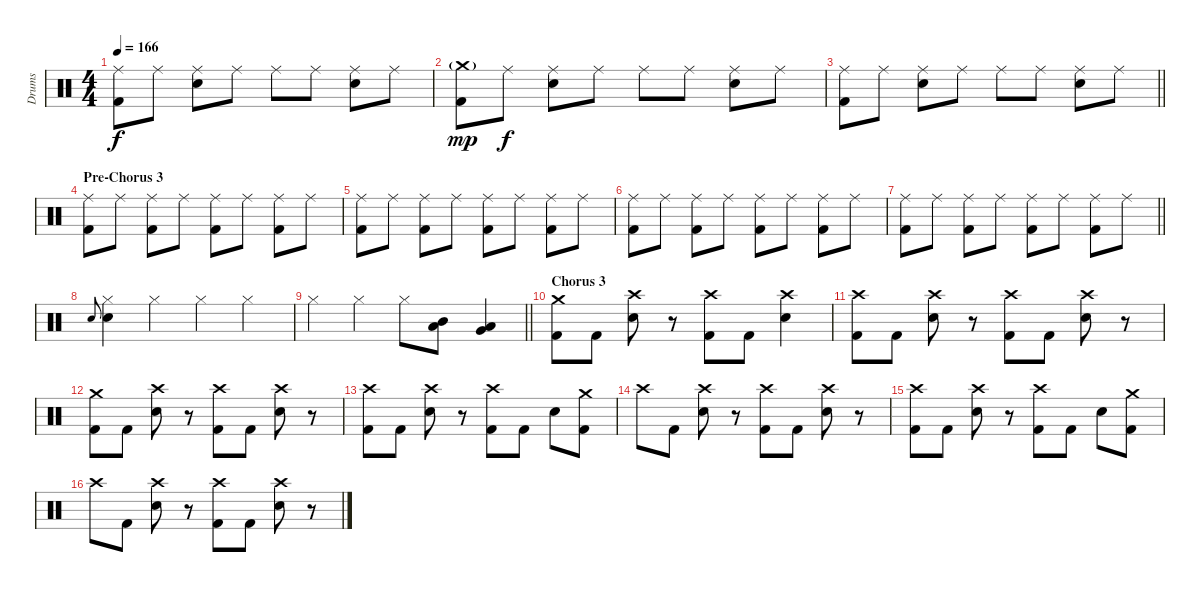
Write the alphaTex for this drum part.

\track ("Drums" "Drums") {instrument percussion}
\staff {score}
\articulation defaults
\ts (4 4)
\tempo 166
\clef neutral
\ks c
("Ride (middle)" "Kick (hit) 2").8{dy f} "Ride (middle)".8 ("Ride (middle)" "Electric Snare (hit)").8 "Ride (middle)".8 "Ride (middle)".8 "Ride (middle)".8 ("Ride (middle)" "Electric Snare (hit)").8 "Ride (middle)".8 |
("Crash medium (hit)"{g} "Kick (hit) 2").8{dy mp} "Ride (middle)".8{dy f} ("Ride (middle)" "Electric Snare (hit)").8 "Ride (middle)".8 "Ride (middle)".8 "Ride (middle)".8 ("Ride (middle)" "Electric Snare (hit)").8 "Ride (middle)".8 |
\barLineRight lightlight
("Ride (middle)" "Kick (hit) 2").8 "Ride (middle)".8 ("Ride (middle)" "Electric Snare (hit)").8 "Ride (middle)".8 "Ride (middle)".8 "Ride (middle)".8 ("Ride (middle)" "Electric Snare (hit)").8 "Ride (middle)".8 |
\section ("" "Pre-Chorus 3")
("Ride (middle)" "Kick (hit) 2").8 "Ride (middle)".8 ("Ride (middle)" "Kick (hit) 2").8 "Ride (middle)".8 ("Ride (middle)" "Kick (hit) 2").8 "Ride (middle)".8 ("Ride (middle)" "Kick (hit) 2").8 "Ride (middle)".8 |
("Ride (middle)" "Kick (hit) 2").8 "Ride (middle)".8 ("Ride (middle)" "Kick (hit) 2").8 "Ride (middle)".8 ("Ride (middle)" "Kick (hit) 2").8 "Ride (middle)".8 ("Ride (middle)" "Kick (hit) 2").8 "Ride (middle)".8 |
("Ride (middle)" "Kick (hit) 2").8 "Ride (middle)".8 ("Ride (middle)" "Kick (hit) 2").8 "Ride (middle)".8 ("Ride (middle)" "Kick (hit) 2").8 "Ride (middle)".8 ("Ride (middle)" "Kick (hit) 2").8 "Ride (middle)".8 |
\barLineRight lightlight
("Ride (middle)" "Kick (hit) 2").8 "Ride (middle)".8 ("Ride (middle)" "Kick (hit) 2").8 "Ride (middle)".8 ("Ride (middle)" "Kick (hit) 2").8 "Ride (middle)".8 ("Ride (middle)" "Kick (hit) 2").8 "Ride (middle)".8 |
"Electric Snare (hit)".8{gr onbeat} ("Hi-Hat (closed)" "Electric Snare (hit)").4 "Hi-Hat (closed)".4 "Hi-Hat (closed)".4 "Hi-Hat (closed)".4 |
\barLineRight lightlight "Hi-Hat (closed)".4 "Hi-Hat (closed)".4 "Hi-Hat (closed)".8
("Mid Tom (hit)" "Low Tom (hit)").8 ("Low Tom (hit)" "Very Low Tom (hit)").4 |
\section ("" "Chorus 3")
("Crash medium (hit)" "Kick (hit) 2").8 "Kick (hit) 2".8 ("Crash high (hit)" "Electric Snare (hit)").8 r.8 ("Crash high (hit)" "Kick (hit) 2").8 "Kick (hit) 2".8 ("Crash high (hit)" "Electric Snare (hit)").4 |
("Crash high (hit)" "Kick (hit) 2").8 "Kick (hit) 2".8 ("Crash high (hit)" "Electric Snare (hit)").8 r.8 ("Crash high (hit)" "Kick (hit) 2").8 "Kick (hit) 2".8 ("Crash high (hit)" "Electric Snare (hit)").8 r.8 |
("Crash medium (hit)" "Kick (hit) 2").8 "Kick (hit) 2".8 ("Crash high (hit)" "Electric Snare (hit)").8 r.8 ("Crash high (hit)" "Kick (hit) 2").8 "Kick (hit) 2".8 ("Crash high (hit)" "Electric Snare (hit)").8 r.8 |
("Crash high (hit)" "Kick (hit) 2").8 "Kick (hit) 2".8 ("Crash high (hit)" "Electric Snare (hit)").8 r.8 ("Crash high (hit)" "Kick (hit) 2").8 "Kick (hit) 2".8 "Electric Snare (hit)".8 ("Crash medium (hit)" "Kick (hit) 2").8 |
"Crash high (hit)".8 "Kick (hit) 2".8 ("Crash high (hit)" "Electric Snare (hit)").8 r.8 ("Crash high (hit)" "Kick (hit) 2").8 "Kick (hit) 2".8 ("Crash high (hit)" "Electric Snare (hit)").8 r.8 |
("Crash high (hit)" "Kick (hit) 2").8 "Kick (hit) 2".8 ("Crash high (hit)" "Electric Snare (hit)").8 r.8 ("Crash high (hit)" "Kick (hit) 2").8 "Kick (hit) 2".8 "Electric Snare (hit)".8 ("Crash medium (hit)" "Kick (hit) 2").8 |
"Crash high (hit)".8 "Kick (hit) 2".8 ("Crash high (hit)" "Electric Snare (hit)").8 r.8 ("Crash high (hit)" "Kick (hit) 2").8 "Kick (hit) 2".8 ("Crash high (hit)" "Electric Snare (hit)").8 r.8
